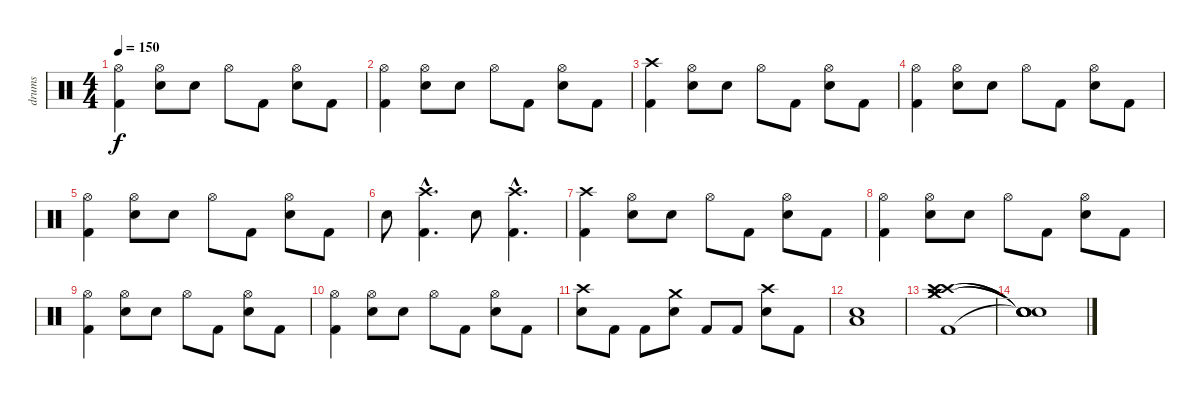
\track ("drums" "drums") {instrument percussion}
\staff {score}
\articulation defaults
\ts (4 4)
\tempo 150
\clef neutral
\ks c
("Hi-Hat (open)" "Kick (hit) 2").4{dy f} ("Hi-Hat (open)" "Electric Snare (hit)").8 "Electric Snare (hit)".8 "Hi-Hat (open)".8 "Kick (hit) 2".8 ("Hi-Hat (open)" "Electric Snare (hit)").8 "Kick (hit) 2".8 |
("Hi-Hat (open)" "Kick (hit) 2").4 ("Hi-Hat (open)" "Electric Snare (hit)").8 "Electric Snare (hit)".8 "Hi-Hat (open)".8 "Kick (hit) 2".8 ("Hi-Hat (open)" "Electric Snare (hit)").8 "Kick (hit) 2".8 |
("Crash high (hit)" "Kick (hit) 2").4 ("Hi-Hat (open)" "Electric Snare (hit)").8 "Electric Snare (hit)".8 "Hi-Hat (open)".8 "Kick (hit) 2".8 ("Hi-Hat (open)" "Electric Snare (hit)").8 "Kick (hit) 2".8 |
("Hi-Hat (open)" "Kick (hit) 2").4 ("Hi-Hat (open)" "Electric Snare (hit)").8 "Electric Snare (hit)".8 "Hi-Hat (open)".8 "Kick (hit) 2".8 ("Hi-Hat (open)" "Electric Snare (hit)").8 "Kick (hit) 2".8 |
("Hi-Hat (open)" "Kick (hit) 2").4 ("Hi-Hat (open)" "Electric Snare (hit)").8 "Electric Snare (hit)".8 "Hi-Hat (open)".8 "Kick (hit) 2".8 ("Hi-Hat (open)" "Electric Snare (hit)").8 "Kick (hit) 2".8 |
"Electric Snare (hit)".8 ("Crash high (hit)"{hac} "Kick (hit) 2"{hac}).4{d} "Electric Snare (hit)".8 ("Crash high (hit)"{hac} "Kick (hit) 2"{hac}).4{d} |
("Crash high (hit)" "Kick (hit) 2").4 ("Hi-Hat (open)" "Electric Snare (hit)").8 "Electric Snare (hit)".8 "Hi-Hat (open)".8 "Kick (hit) 2".8 ("Hi-Hat (open)" "Electric Snare (hit)").8 "Kick (hit) 2".8 |
("Hi-Hat (open)" "Kick (hit) 2").4 ("Hi-Hat (open)" "Electric Snare (hit)").8 "Electric Snare (hit)".8 "Hi-Hat (open)".8 "Kick (hit) 2".8 ("Hi-Hat (open)" "Electric Snare (hit)").8 "Kick (hit) 2".8 |
("Hi-Hat (open)" "Kick (hit) 2").4 ("Hi-Hat (open)" "Electric Snare (hit)").8 "Electric Snare (hit)".8 "Hi-Hat (open)".8 "Kick (hit) 2".8 ("Hi-Hat (open)" "Electric Snare (hit)").8 "Kick (hit) 2".8 |
("Hi-Hat (open)" "Kick (hit) 2").4 ("Hi-Hat (open)" "Electric Snare (hit)").8 "Electric Snare (hit)".8 "Hi-Hat (open)".8 "Kick (hit) 2".8 ("Hi-Hat (open)" "Electric Snare (hit)").8 "Kick (hit) 2".8 |
("Crash high (hit)" "Electric Snare (hit)").8 "Kick (hit) 2".8 "Kick (hit) 2".8 ("Crash medium (hit)" "Electric Snare (hit)").8 "Kick (hit) 2".8 "Kick (hit) 2".8 ("Crash high (hit)" "Electric Snare (hit)").8 "Kick (hit) 2".8 |
("Low Floor Tom (hit)" "Electric Snare (hit)").1 |
("Crash high (hit)" "Kick (hit) 2" "Crash high (hit)" "Crash medium (hit)" "Crash medium (hit)").1 |
("Snare (hit)"{t} "Snare (hit)"{t} "Snare (hit)"{t} "Snare (hit)"{t} "Snare (hit)"{t}).1
